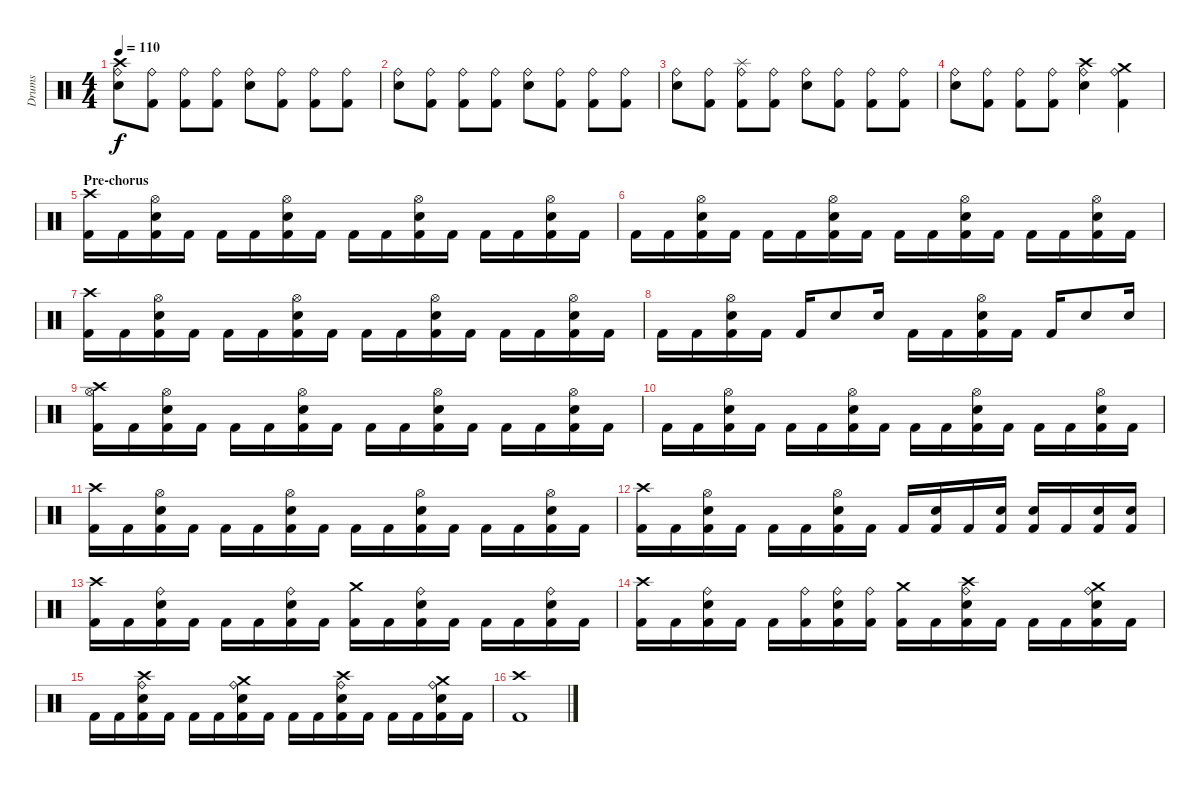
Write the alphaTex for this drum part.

\track ("Drums" "Drums") {instrument percussion}
\staff {score}
\articulation defaults
\ts (4 4)
\tempo 110
\clef neutral
\ks c
("Ride (bell)" "Electric Snare (hit)" "Crash high (hit)").8{dy f} ("Ride (bell)" "Kick (hit) 2").8 ("Ride (bell)" "Kick (hit) 2").8 ("Ride (bell)" "Kick (hit) 2").8 ("Ride (bell)" "Electric Snare (hit)").8 ("Ride (bell)" "Kick (hit) 2").8 ("Ride (bell)" "Kick (hit) 2").8 ("Ride (bell)" "Kick (hit) 2").8 |
("Ride (bell)" "Electric Snare (hit)").8 ("Ride (bell)" "Kick (hit) 2").8 ("Ride (bell)" "Kick (hit) 2").8 ("Ride (bell)" "Kick (hit) 2").8 ("Ride (bell)" "Electric Snare (hit)").8 ("Ride (bell)" "Kick (hit) 2").8 ("Ride (bell)" "Kick (hit) 2").8 ("Ride (bell)" "Kick (hit) 2").8 |
("Ride (bell)" "Electric Snare (hit)").8 ("Ride (bell)" "Kick (hit) 2").8 ("Ride (bell)" "Kick (hit) 2" "Splash (hit)").8 ("Ride (bell)" "Kick (hit) 2").8 ("Ride (bell)" "Electric Snare (hit)").8 ("Ride (bell)" "Kick (hit) 2").8 ("Ride (bell)" "Kick (hit) 2").8 ("Ride (bell)" "Kick (hit) 2").8 |
("Ride (bell)" "Electric Snare (hit)").8 ("Ride (bell)" "Kick (hit) 2").8 ("Ride (bell)" "Kick (hit) 2").8 ("Ride (bell)" "Kick (hit) 2").8 ("Ride (bell)" "Electric Snare (hit)" "Crash high (hit)").4 ("Ride (bell)" "Kick (hit) 2" "Crash medium (hit)").4 |
\section ("" "Pre-chorus")
("Kick (hit) 2" "Crash high (hit)").16 "Kick (hit) 2".16 ("Kick (hit) 2" "Electric Snare (hit)" "Hi-Hat (open)").16 "Kick (hit) 2".16 "Kick (hit) 2".16 "Kick (hit) 2".16 ("Kick (hit) 2" "Electric Snare (hit)" "Hi-Hat (open)").16 "Kick (hit) 2".16 "Kick (hit) 2".16 "Kick (hit) 2".16 ("Kick (hit) 2" "Electric Snare (hit)" "Hi-Hat (open)").16 "Kick (hit) 2".16 "Kick (hit) 2".16 "Kick (hit) 2".16 ("Kick (hit) 2" "Electric Snare (hit)" "Hi-Hat (open)").16 "Kick (hit) 2".16 |
"Kick (hit) 2".16 "Kick (hit) 2".16 ("Kick (hit) 2" "Electric Snare (hit)" "Hi-Hat (open)").16 "Kick (hit) 2".16 "Kick (hit) 2".16 "Kick (hit) 2".16 ("Kick (hit) 2" "Electric Snare (hit)" "Hi-Hat (open)").16 "Kick (hit) 2".16 "Kick (hit) 2".16 "Kick (hit) 2".16 ("Kick (hit) 2" "Electric Snare (hit)" "Hi-Hat (open)").16 "Kick (hit) 2".16 "Kick (hit) 2".16 "Kick (hit) 2".16 ("Kick (hit) 2" "Electric Snare (hit)" "Hi-Hat (open)").16 "Kick (hit) 2".16 |
("Kick (hit) 2" "Crash high (hit)").16 "Kick (hit) 2".16 ("Kick (hit) 2" "Electric Snare (hit)" "Hi-Hat (open)").16 "Kick (hit) 2".16 "Kick (hit) 2".16 "Kick (hit) 2".16 ("Kick (hit) 2" "Electric Snare (hit)" "Hi-Hat (open)").16 "Kick (hit) 2".16 "Kick (hit) 2".16 "Kick (hit) 2".16 ("Kick (hit) 2" "Electric Snare (hit)" "Hi-Hat (open)").16 "Kick (hit) 2".16 "Kick (hit) 2".16 "Kick (hit) 2".16 ("Kick (hit) 2" "Electric Snare (hit)" "Hi-Hat (open)").16 "Kick (hit) 2".16 |
"Kick (hit) 2".16 "Kick (hit) 2".16 ("Kick (hit) 2" "Electric Snare (hit)" "Hi-Hat (open)").16 "Kick (hit) 2".16 "Kick (hit) 2".16 "Electric Snare (hit)".8 "Electric Snare (hit)".16 "Kick (hit) 2".16 "Kick (hit) 2".16 ("Kick (hit) 2" "Electric Snare (hit)" "Hi-Hat (open)").16 "Kick (hit) 2".16 "Kick (hit) 2".16 "Electric Snare (hit)".8 "Electric Snare (hit)".16 |
("Kick (hit) 2" "Hi-Hat (open)" "Crash high (hit)").16 "Kick (hit) 2".16 ("Kick (hit) 2" "Electric Snare (hit)" "Hi-Hat (open)").16 "Kick (hit) 2".16 "Kick (hit) 2".16 "Kick (hit) 2".16 ("Kick (hit) 2" "Electric Snare (hit)" "Hi-Hat (open)").16 "Kick (hit) 2".16 "Kick (hit) 2".16 "Kick (hit) 2".16 ("Kick (hit) 2" "Electric Snare (hit)" "Hi-Hat (open)").16 "Kick (hit) 2".16 "Kick (hit) 2".16 "Kick (hit) 2".16 ("Kick (hit) 2" "Electric Snare (hit)" "Hi-Hat (open)").16 "Kick (hit) 2".16 |
"Kick (hit) 2".16 "Kick (hit) 2".16 ("Kick (hit) 2" "Electric Snare (hit)" "Hi-Hat (open)").16 "Kick (hit) 2".16 "Kick (hit) 2".16 "Kick (hit) 2".16 ("Kick (hit) 2" "Electric Snare (hit)" "Hi-Hat (open)").16 "Kick (hit) 2".16 "Kick (hit) 2".16 "Kick (hit) 2".16 ("Kick (hit) 2" "Electric Snare (hit)" "Hi-Hat (open)").16 "Kick (hit) 2".16 "Kick (hit) 2".16 "Kick (hit) 2".16 ("Kick (hit) 2" "Electric Snare (hit)" "Hi-Hat (open)").16 "Kick (hit) 2".16 |
("Kick (hit) 2" "Crash high (hit)").16 "Kick (hit) 2".16 ("Kick (hit) 2" "Electric Snare (hit)" "Hi-Hat (open)").16 "Kick (hit) 2".16 "Kick (hit) 2".16 "Kick (hit) 2".16 ("Kick (hit) 2" "Electric Snare (hit)" "Hi-Hat (open)").16 "Kick (hit) 2".16 "Kick (hit) 2".16 "Kick (hit) 2".16 ("Kick (hit) 2" "Electric Snare (hit)" "Hi-Hat (open)").16 "Kick (hit) 2".16 "Kick (hit) 2".16 "Kick (hit) 2".16 ("Kick (hit) 2" "Electric Snare (hit)" "Hi-Hat (open)").16 "Kick (hit) 2".16 |
("Kick (hit) 2" "Crash high (hit)").16 "Kick (hit) 2".16 ("Kick (hit) 2" "Electric Snare (hit)" "Hi-Hat (open)").16 "Kick (hit) 2".16 "Kick (hit) 2".16 "Kick (hit) 2".16 ("Kick (hit) 2" "Electric Snare (hit)" "Hi-Hat (open)").16 "Kick (hit) 2".16 "Kick (hit) 2".16 ("Kick (hit) 2" "Electric Snare (hit)").16 "Kick (hit) 2".16 ("Kick (hit) 2" "Electric Snare (hit)").16 ("Kick (hit) 2" "Electric Snare (hit)").16 "Kick (hit) 2".16 ("Kick (hit) 2" "Electric Snare (hit)").16 ("Kick (hit) 2" "Electric Snare (hit)").16 |
("Kick (hit) 2" "Crash high (hit)").16 "Kick (hit) 2".16 ("Kick (hit) 2" "Electric Snare (hit)" "Ride (bell)").16 "Kick (hit) 2".16 "Kick (hit) 2".16 "Kick (hit) 2".16 ("Kick (hit) 2" "Electric Snare (hit)" "Ride (bell)").16 "Kick (hit) 2".16 ("Kick (hit) 2" "Crash medium (hit)").16 "Kick (hit) 2".16 ("Kick (hit) 2" "Electric Snare (hit)" "Ride (bell)").16 "Kick (hit) 2".16 "Kick (hit) 2".16 "Kick (hit) 2".16 ("Kick (hit) 2" "Electric Snare (hit)" "Ride (bell)").16 "Kick (hit) 2".16 |
("Kick (hit) 2" "Crash high (hit)").16 "Kick (hit) 2".16 ("Kick (hit) 2" "Electric Snare (hit)" "Ride (bell)").16 "Kick (hit) 2".16 "Kick (hit) 2".16 ("Kick (hit) 2" "Ride (bell)").16 ("Kick (hit) 2" "Electric Snare (hit)" "Ride (bell)").16 ("Kick (hit) 2" "Ride (bell)").16 ("Kick (hit) 2" "Crash medium (hit)").16 "Kick (hit) 2".16 ("Kick (hit) 2" "Electric Snare (hit)" "Ride (bell)" "Crash high (hit)").16 "Kick (hit) 2".16 "Kick (hit) 2".16 "Kick (hit) 2".16 ("Kick (hit) 2" "Electric Snare (hit)" "Ride (bell)" "Crash medium (hit)").16 "Kick (hit) 2".16 |
"Kick (hit) 2".16 "Kick (hit) 2".16 ("Kick (hit) 2" "Electric Snare (hit)" "Ride (bell)" "Crash high (hit)").16 "Kick (hit) 2".16 "Kick (hit) 2".16 "Kick (hit) 2".16 ("Kick (hit) 2" "Electric Snare (hit)" "Ride (bell)" "Crash medium (hit)").16 "Kick (hit) 2".16 "Kick (hit) 2".16 "Kick (hit) 2".16 ("Kick (hit) 2" "Electric Snare (hit)" "Ride (bell)" "Crash high (hit)").16 "Kick (hit) 2".16 "Kick (hit) 2".16 "Kick (hit) 2".16 ("Kick (hit) 2" "Electric Snare (hit)" "Ride (bell)" "Crash medium (hit)").16 "Kick (hit) 2".16 |
("Kick (hit) 2" "Crash high (hit)").1
